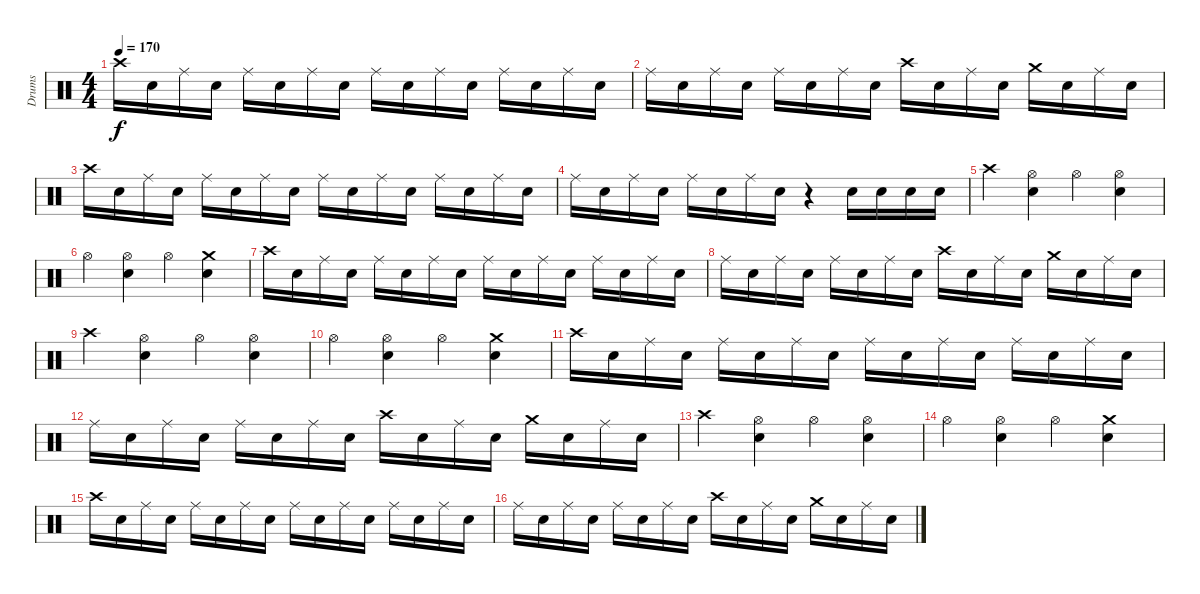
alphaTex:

\track ("Drums" "Drums") {instrument percussion}
\staff {score}
\articulation defaults
\ts (4 4)
\tempo 170
\clef neutral
\ks c "Crash high (hit)".16{dy f} "Electric Snare (hit)".16 "Ride (middle)".16 "Electric Snare (hit)".16 "Ride (middle)".16 "Electric Snare (hit)".16 "Ride (middle)".16 "Electric Snare (hit)".16 "Ride (middle)".16 "Electric Snare (hit)".16 "Ride (middle)".16 "Electric Snare (hit)".16 "Ride (middle)".16 "Electric Snare (hit)".16 "Ride (middle)".16 "Electric Snare (hit)".16
|
"Ride (middle)".16 "Electric Snare (hit)".16 "Ride (middle)".16 "Electric Snare (hit)".16 "Ride (middle)".16 "Electric Snare (hit)".16 "Ride (middle)".16 "Electric Snare (hit)".16 "Crash high (hit)".16 "Electric Snare (hit)".16 "Ride (middle)".16 "Electric Snare (hit)".16 "Crash medium (hit)".16 "Electric Snare (hit)".16 "Ride (middle)".16 "Electric Snare (hit)".16 |
"Crash high (hit)".16 "Electric Snare (hit)".16 "Ride (middle)".16 "Electric Snare (hit)".16 "Ride (middle)".16 "Electric Snare (hit)".16 "Ride (middle)".16 "Electric Snare (hit)".16 "Ride (middle)".16 "Electric Snare (hit)".16 "Ride (middle)".16 "Electric Snare (hit)".16 "Ride (middle)".16 "Electric Snare (hit)".16 "Ride (middle)".16 "Electric Snare (hit)".16 |
"Ride (middle)".16 "Electric Snare (hit)".16 "Ride (middle)".16 "Electric Snare (hit)".16 "Ride (middle)".16 "Electric Snare (hit)".16 "Ride (middle)".16 "Electric Snare (hit)".16 r.4 "Electric Snare (hit)".16 "Electric Snare (hit)".16 "Electric Snare (hit)".16 "Electric Snare (hit)".16 |
"Crash high (hit)".4 ("Hi-Hat (open)" "Electric Snare (hit)").4 "Hi-Hat (open)".4 ("Hi-Hat (open)" "Electric Snare (hit)").4 |
"Hi-Hat (open)".4 ("Hi-Hat (open)" "Electric Snare (hit)").4 "Hi-Hat (open)".4 ("Crash medium (hit)" "Electric Snare (hit)").4 |
"Crash high (hit)".16 "Electric Snare (hit)".16 "Ride (middle)".16 "Electric Snare (hit)".16 "Ride (middle)".16 "Electric Snare (hit)".16 "Ride (middle)".16 "Electric Snare (hit)".16 "Ride (middle)".16 "Electric Snare (hit)".16 "Ride (middle)".16 "Electric Snare (hit)".16 "Ride (middle)".16 "Electric Snare (hit)".16 "Ride (middle)".16 "Electric Snare (hit)".16 |
"Ride (middle)".16 "Electric Snare (hit)".16 "Ride (middle)".16 "Electric Snare (hit)".16 "Ride (middle)".16 "Electric Snare (hit)".16 "Ride (middle)".16 "Electric Snare (hit)".16 "Crash high (hit)".16 "Electric Snare (hit)".16 "Ride (middle)".16 "Electric Snare (hit)".16 "Crash medium (hit)".16 "Electric Snare (hit)".16 "Ride (middle)".16 "Electric Snare (hit)".16 |
"Crash high (hit)".4 ("Hi-Hat (open)" "Electric Snare (hit)").4 "Hi-Hat (open)".4 ("Hi-Hat (open)" "Electric Snare (hit)").4 |
"Hi-Hat (open)".4 ("Hi-Hat (open)" "Electric Snare (hit)").4 "Hi-Hat (open)".4 ("Crash medium (hit)" "Electric Snare (hit)").4 |
"Crash high (hit)".16 "Electric Snare (hit)".16 "Ride (middle)".16 "Electric Snare (hit)".16 "Ride (middle)".16 "Electric Snare (hit)".16 "Ride (middle)".16 "Electric Snare (hit)".16 "Ride (middle)".16 "Electric Snare (hit)".16 "Ride (middle)".16 "Electric Snare (hit)".16 "Ride (middle)".16 "Electric Snare (hit)".16 "Ride (middle)".16 "Electric Snare (hit)".16 |
"Ride (middle)".16 "Electric Snare (hit)".16 "Ride (middle)".16 "Electric Snare (hit)".16 "Ride (middle)".16 "Electric Snare (hit)".16 "Ride (middle)".16 "Electric Snare (hit)".16 "Crash high (hit)".16 "Electric Snare (hit)".16 "Ride (middle)".16 "Electric Snare (hit)".16 "Crash medium (hit)".16 "Electric Snare (hit)".16 "Ride (middle)".16 "Electric Snare (hit)".16 |
"Crash high (hit)".4 ("Hi-Hat (open)" "Electric Snare (hit)").4 "Hi-Hat (open)".4 ("Hi-Hat (open)" "Electric Snare (hit)").4 |
"Hi-Hat (open)".4 ("Hi-Hat (open)" "Electric Snare (hit)").4 "Hi-Hat (open)".4 ("Crash medium (hit)" "Electric Snare (hit)").4 |
"Crash high (hit)".16 "Electric Snare (hit)".16 "Ride (middle)".16 "Electric Snare (hit)".16 "Ride (middle)".16 "Electric Snare (hit)".16 "Ride (middle)".16 "Electric Snare (hit)".16 "Ride (middle)".16 "Electric Snare (hit)".16 "Ride (middle)".16 "Electric Snare (hit)".16 "Ride (middle)".16 "Electric Snare (hit)".16 "Ride (middle)".16 "Electric Snare (hit)".16 |
"Ride (middle)".16 "Electric Snare (hit)".16 "Ride (middle)".16 "Electric Snare (hit)".16 "Ride (middle)".16 "Electric Snare (hit)".16 "Ride (middle)".16 "Electric Snare (hit)".16 "Crash high (hit)".16 "Electric Snare (hit)".16 "Ride (middle)".16 "Electric Snare (hit)".16 "Crash medium (hit)".16 "Electric Snare (hit)".16 "Ride (middle)".16 "Electric Snare (hit)".16
